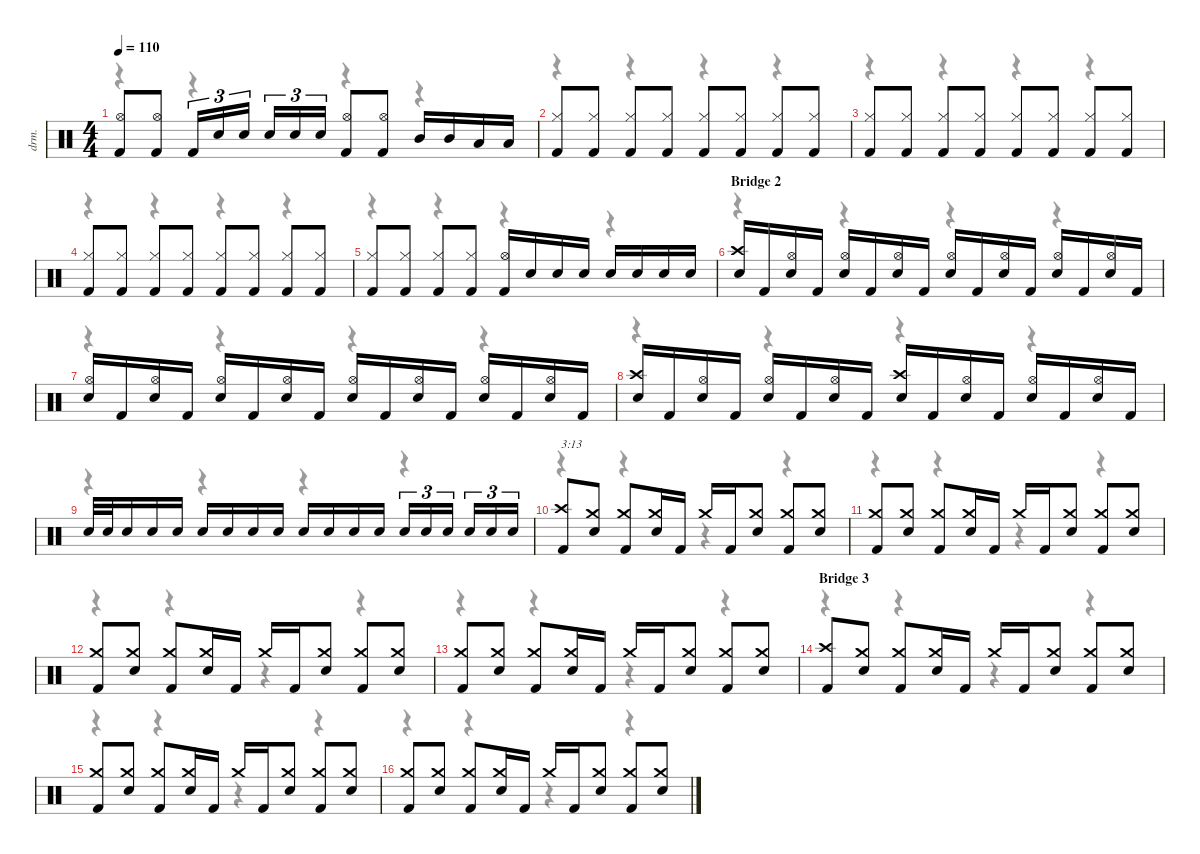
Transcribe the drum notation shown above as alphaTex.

\defaultSystemsLayout 4
\hideDynamics
\bracketExtendMode nobrackets
\otherSystemsTrackNameOrientation horizontal
\track ("Drums" "drm.") {instrument percussion}
\staff {score}
\articulation defaults
\voice
\ts (4 4)
\tempo 110
\clef neutral
\ks c
("Hi-Hat (open)" "Kick (hit) 2").8{dy f beam Up} ("Hi-Hat (open)" "Kick (hit) 2").8{beam Up} "Kick (hit) 2".16{tu (3 2) beam Up} "Snare (hit) 2".16{tu (3 2) beam Up} "Snare (hit) 2".16{tu (3 2) beam Up} "Snare (hit) 2".16{tu (3 2) beam Up} "Snare (hit) 2".16{tu (3 2) beam Up} "Snare (hit) 2".16{tu (3 2) beam Up} ("Hi-Hat (open)" "Kick (hit) 2").8{beam Up} ("Hi-Hat (open)" "Kick (hit) 2").8{beam Up} "Mid Tom (hit)".16{beam Up} "Mid Tom (hit)".16{beam Up} "Low Tom (hit)".16{beam Up} "Low Tom (hit)".16{beam Up} |
("Hi-Hat (closed)" "Kick (hit) 2").8{beam Up} ("Hi-Hat (closed)" "Kick (hit) 2").8{beam Up} ("Hi-Hat (closed)" "Kick (hit) 2").8{beam Up} ("Hi-Hat (closed)" "Kick (hit) 2").8{beam Up} ("Hi-Hat (closed)" "Kick (hit) 2").8{beam Up} ("Hi-Hat (closed)" "Kick (hit) 2").8{beam Up} ("Hi-Hat (closed)" "Kick (hit) 2").8{beam Up} ("Hi-Hat (closed)" "Kick (hit) 2").8{beam Up} |
("Hi-Hat (closed)" "Kick (hit) 2").8{beam Up} ("Hi-Hat (closed)" "Kick (hit) 2").8{beam Up} ("Hi-Hat (closed)" "Kick (hit) 2").8{beam Up} ("Hi-Hat (closed)" "Kick (hit) 2").8{beam Up} ("Hi-Hat (closed)" "Kick (hit) 2").8{beam Up} ("Hi-Hat (closed)" "Kick (hit) 2").8{beam Up} ("Hi-Hat (closed)" "Kick (hit) 2").8{beam Up} ("Hi-Hat (closed)" "Kick (hit) 2").8{beam Up} |
("Hi-Hat (closed)" "Kick (hit) 2").8{beam Up} ("Hi-Hat (closed)" "Kick (hit) 2").8{beam Up} ("Hi-Hat (closed)" "Kick (hit) 2").8{beam Up} ("Hi-Hat (closed)" "Kick (hit) 2").8{beam Up} ("Hi-Hat (closed)" "Kick (hit) 2").8{beam Up} ("Hi-Hat (closed)" "Kick (hit) 2").8{beam Up} ("Hi-Hat (closed)" "Kick (hit) 2").8{beam Up} ("Hi-Hat (closed)" "Kick (hit) 2").8{beam Up} |
("Hi-Hat (closed)" "Kick (hit) 2").8{beam Up} ("Hi-Hat (closed)" "Kick (hit) 2").8{beam Up} ("Hi-Hat (closed)" "Kick (hit) 2").8{beam Up} ("Hi-Hat (closed)" "Kick (hit) 2").8{beam Up} ("Hi-Hat (open)" "Kick (hit) 2").16{beam Up} "Snare (hit) 2".16{beam Up} "Snare (hit) 2".16{beam Up} "Snare (hit) 2".16{beam Up} "Snare (hit) 2".16{beam Up} "Snare (hit) 2".16{beam Up} "Snare (hit) 2".16{beam Up} "Snare (hit) 2".16{beam Up} |
\section ("" "Bridge 2")
("Crash high (hit)" "Snare (hit) 2").16{beam Up} "Kick (hit) 2".16{beam Up} ("Hi-Hat (open)" "Snare (hit) 2").16{beam Up} "Kick (hit) 2".16{beam Up} ("Hi-Hat (open)" "Snare (hit) 2").16{beam Up} "Kick (hit) 2".16{beam Up} ("Hi-Hat (open)" "Snare (hit) 2").16{beam Up} "Kick (hit) 2".16{beam Up} ("Hi-Hat (open)" "Snare (hit) 2").16{beam Up} "Kick (hit) 2".16{beam Up} ("Hi-Hat (open)" "Snare (hit) 2").16{beam Up} "Kick (hit) 2".16{beam Up} ("Hi-Hat (open)" "Snare (hit) 2").16{beam Up} "Kick (hit) 2".16{beam Up} ("Hi-Hat (open)" "Snare (hit) 2").16{beam Up} "Kick (hit) 2".16{beam Up} |
("Hi-Hat (open)" "Snare (hit) 2").16{beam Up} "Kick (hit) 2".16{beam Up} ("Hi-Hat (open)" "Snare (hit) 2").16{beam Up} "Kick (hit) 2".16{beam Up} ("Hi-Hat (open)" "Snare (hit) 2").16{beam Up} "Kick (hit) 2".16{beam Up} ("Hi-Hat (open)" "Snare (hit) 2").16{beam Up} "Kick (hit) 2".16{beam Up} ("Hi-Hat (open)" "Snare (hit) 2").16{beam Up} "Kick (hit) 2".16{beam Up} ("Hi-Hat (open)" "Snare (hit) 2").16{beam Up} "Kick (hit) 2".16{beam Up} ("Hi-Hat (open)" "Snare (hit) 2").16{beam Up} "Kick (hit) 2".16{beam Up} ("Hi-Hat (open)" "Snare (hit) 2").16{beam Up} "Kick (hit) 2".16{beam Up} |
("Crash high (hit)" "Snare (hit) 2").16{beam Up} "Kick (hit) 2".16{beam Up} ("Hi-Hat (open)" "Snare (hit) 2").16{beam Up} "Kick (hit) 2".16{beam Up} ("Hi-Hat (open)" "Snare (hit) 2").16{beam Up} "Kick (hit) 2".16{beam Up} ("Hi-Hat (open)" "Snare (hit) 2").16{beam Up} "Kick (hit) 2".16{beam Up} ("Crash high (hit)" "Snare (hit) 2").16{beam Up} "Kick (hit) 2".16{beam Up} ("Hi-Hat (open)" "Snare (hit) 2").16{beam Up} "Kick (hit) 2".16{beam Up} ("Hi-Hat (open)" "Snare (hit) 2").16{beam Up} "Kick (hit) 2".16{beam Up} ("Hi-Hat (open)" "Snare (hit) 2").16{beam Up} "Kick (hit) 2".16{beam Up} |
"Snare (hit) 2".32{beam Up} "Snare (hit) 2".32{beam Up} "Snare (hit) 2".16{beam Up} "Snare (hit) 2".16{beam Up} "Snare (hit) 2".16{beam Up} "Snare (hit) 2".16{beam Up} "Snare (hit) 2".16{beam Up} "Snare (hit) 2".16{beam Up} "Snare (hit) 2".16{beam Up} "Snare (hit) 2".16{beam Up} "Snare (hit) 2".16{beam Up} "Snare (hit) 2".16{beam Up} "Snare (hit) 2".16{beam Up} "Snare (hit) 2".16{tu (3 2) beam Up} "Snare (hit) 2".16{tu (3 2) beam Up} "Snare (hit) 2".16{tu (3 2) beam Up} "Snare (hit) 2".16{tu (3 2) beam Up} "Snare (hit) 2".16{tu (3 2) beam Up} "Snare (hit) 2".16{tu (3 2) beam Up} |
("Crash high (hit)" "Kick (hit) 2").8{txt "3:13" beam Up} ("Crash medium (hit)" "Snare (hit) 2").8{beam Up} ("Crash medium (hit)" "Kick (hit) 2").8{beam Up} ("Crash medium (hit)" "Snare (hit) 2").16{beam Up} "Kick (hit) 2".16{beam Up} "Crash medium (hit)".16{beam Up} "Kick (hit) 2".16{beam Up} ("Crash medium (hit)" "Snare (hit) 2").8{beam Up} ("Crash medium (hit)" "Kick (hit) 2").8{beam Up} ("Crash medium (hit)" "Snare (hit) 2").8{beam Up} |
("Crash medium (hit)" "Kick (hit) 2").8{beam Up} ("Crash medium (hit)" "Snare (hit) 2").8{beam Up} ("Crash medium (hit)" "Kick (hit) 2").8{beam Up} ("Crash medium (hit)" "Snare (hit) 2").16{beam Up} "Kick (hit) 2".16{beam Up} "Crash medium (hit)".16{beam Up} "Kick (hit) 2".16{beam Up} ("Crash medium (hit)" "Snare (hit) 2").8{beam Up} ("Crash medium (hit)" "Kick (hit) 2").8{beam Up} ("Crash medium (hit)" "Snare (hit) 2").8{beam Up} |
("Crash medium (hit)" "Kick (hit) 2").8{beam Up} ("Crash medium (hit)" "Snare (hit) 2").8{beam Up} ("Crash medium (hit)" "Kick (hit) 2").8{beam Up} ("Crash medium (hit)" "Snare (hit) 2").16{beam Up} "Kick (hit) 2".16{beam Up} "Crash medium (hit)".16{beam Up} "Kick (hit) 2".16{beam Up} ("Crash medium (hit)" "Snare (hit) 2").8{beam Up} ("Crash medium (hit)" "Kick (hit) 2").8{beam Up} ("Crash medium (hit)" "Snare (hit) 2").8{beam Up} |
("Crash medium (hit)" "Kick (hit) 2").8{beam Up} ("Crash medium (hit)" "Snare (hit) 2").8{beam Up} ("Crash medium (hit)" "Kick (hit) 2").8{beam Up} ("Crash medium (hit)" "Snare (hit) 2").16{beam Up} "Kick (hit) 2".16{beam Up} "Crash medium (hit)".16{beam Up} "Kick (hit) 2".16{beam Up} ("Crash medium (hit)" "Snare (hit) 2").8{beam Up} ("Crash medium (hit)" "Kick (hit) 2").8{beam Up} ("Crash medium (hit)" "Snare (hit) 2").8{beam Up} |
\section ("" "Bridge 3")
("Crash high (hit)" "Kick (hit) 2").8{beam Up} ("Crash medium (hit)" "Snare (hit) 2").8{beam Up} ("Crash medium (hit)" "Kick (hit) 2").8{beam Up} ("Crash medium (hit)" "Snare (hit) 2").16{beam Up} "Kick (hit) 2".16{beam Up} "Crash medium (hit)".16{beam Up} "Kick (hit) 2".16{beam Up} ("Crash medium (hit)" "Snare (hit) 2").8{beam Up} ("Crash medium (hit)" "Kick (hit) 2").8{beam Up} ("Crash medium (hit)" "Snare (hit) 2").8{beam Up} |
("Crash medium (hit)" "Kick (hit) 2").8{beam Up} ("Crash medium (hit)" "Snare (hit) 2").8{beam Up} ("Crash medium (hit)" "Kick (hit) 2").8{beam Up} ("Crash medium (hit)" "Snare (hit) 2").16{beam Up} "Kick (hit) 2".16{beam Up} "Crash medium (hit)".16{beam Up} "Kick (hit) 2".16{beam Up} ("Crash medium (hit)" "Snare (hit) 2").8{beam Up} ("Crash medium (hit)" "Kick (hit) 2").8{beam Up} ("Crash medium (hit)" "Snare (hit) 2").8{beam Up} |
("Crash medium (hit)" "Kick (hit) 2").8{beam Up} ("Crash medium (hit)" "Snare (hit) 2").8{beam Up} ("Crash medium (hit)" "Kick (hit) 2").8{beam Up} ("Crash medium (hit)" "Snare (hit) 2").16{beam Up} "Kick (hit) 2".16{beam Up} "Crash medium (hit)".16{beam Up} "Kick (hit) 2".16{beam Up} ("Crash medium (hit)" "Snare (hit) 2").8{beam Up} ("Crash medium (hit)" "Kick (hit) 2").8{beam Up} ("Crash medium (hit)" "Snare (hit) 2").8{beam Up}
\voice
\clef neutral
\ottava regular
\simile none
\ks c
r.4{dy mf beam Down} r.4{beam Down} r.4{beam Down} r.4{beam Down} |
r.4{beam Down} r.4{beam Down} r.4{beam Down} r.4{beam Down} |
r.4{beam Down} r.4{beam Down} r.4{beam Down} r.4{beam Down} |
r.4{beam Down} r.4{beam Down} r.4{beam Down} r.4{beam Down} |
r.4{beam Down} r.4{beam Down} r.4{beam Down} r.4{beam Down} |
r.4{beam Down} r.4{beam Down} r.4{beam Down} r.4{beam Down} |
r.4{beam Down} r.4{beam Down} r.4{beam Down} r.4{beam Down} |
r.4{beam Down} r.4{beam Down} r.4{beam Down} r.4{beam Down} |
r.4{beam Down} r.4{beam Down} r.4{beam Down} r.4{beam Down} |
r.4{beam Down} r.4{beam Down} r.4{beam Down} r.4{beam Down} |
r.4{beam Down} r.4{beam Down} r.4{beam Down} r.4{beam Down} |
r.4{beam Down} r.4{beam Down} r.4{beam Down} r.4{beam Down} |
r.4{beam Down} r.4{beam Down} r.4{beam Down} r.4{beam Down} |
r.4{beam Down} r.4{beam Down} r.4{beam Down} r.4{beam Down} |
r.4{beam Down} r.4{beam Down} r.4{beam Down} r.4{beam Down} |
r.4{beam Down} r.4{beam Down} r.4{beam Down} r.4{beam Down}
